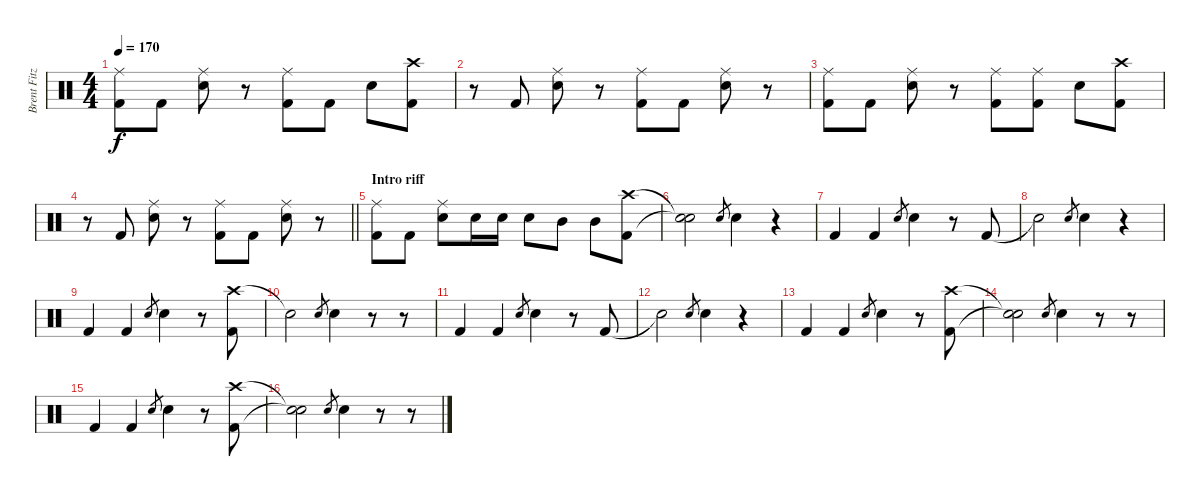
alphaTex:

\track ("Brent Fitz" "Brent Fitz") {instrument percussion}
\staff {score}
\articulation defaults
\ts (4 4)
\tempo 170
\clef neutral
\ks c
("Ride (middle)" "Kick (hit) 2").8{dy f} "Kick (hit) 2".8 ("Ride (middle)" "Electric Snare (hit)").8 r.8 ("Ride (middle)" "Kick (hit) 2").8 "Kick (hit) 2".8 "Electric Snare (hit)".8 ("Crash high (hit)" "Kick (hit) 2").8 |
r.8 "Kick (hit) 2".8 ("Ride (middle)" "Electric Snare (hit)").8 r.8 ("Ride (middle)" "Kick (hit) 2").8 "Kick (hit) 2".8 ("Ride (middle)" "Electric Snare (hit)").8 r.8 |
("Ride (middle)" "Kick (hit) 2").8 "Kick (hit) 2".8 ("Ride (middle)" "Electric Snare (hit)").8 r.8 ("Ride (middle)" "Kick (hit) 2").8 ("Ride (middle)" "Kick (hit) 2").8 "Electric Snare (hit)".8 ("Crash high (hit)" "Kick (hit) 2").8 |
\barLineRight lightlight
r.8 "Kick (hit) 2".8 ("Ride (middle)" "Electric Snare (hit)").8 r.8 ("Ride (middle)" "Kick (hit) 2").8 "Kick (hit) 2".8 ("Ride (middle)" "Electric Snare (hit)").8 r.8 |
\section ("" "Intro riff")
("Ride (middle)" "Kick (hit) 2").8 "Kick (hit) 2".8 ("Ride (middle)" "Electric Snare (hit)").8 "Electric Snare (hit)".16 "Electric Snare (hit)".16 "Electric Snare (hit)".8 "Mid Tom (hit)".8 "Mid Tom (hit)".8 ("Crash high (hit)" "Kick (hit) 2").8 |
("Snare (hit)"{t} "Snare (hit)"{t}).2 "Electric Snare (hit)".8{gr} "Electric Snare (hit)".4 r.4 |
"Kick (hit) 2".4 "Kick (hit) 2".4 "Electric Snare (hit)".8{gr} "Electric Snare (hit)".4 r.8 "Kick (hit) 2".8 |
"Snare (hit)"{t}.2 "Electric Snare (hit)".8{gr} "Electric Snare (hit)".4 r.4 |
"Kick (hit) 2".4 "Kick (hit) 2".4 "Electric Snare (hit)".8{gr} "Electric Snare (hit)".4 r.8 ("Crash high (hit)" "Kick (hit) 2").8 |
"Snare (hit)"{t}.2 "Electric Snare (hit)".8{gr} "Electric Snare (hit)".4 r.8 r.8 |
"Kick (hit) 2".4 "Kick (hit) 2".4 "Electric Snare (hit)".8{gr} "Electric Snare (hit)".4 r.8 "Kick (hit) 2".8 |
"Snare (hit)"{t}.2 "Electric Snare (hit)".8{gr} "Electric Snare (hit)".4 r.4 |
"Kick (hit) 2".4 "Kick (hit) 2".4 "Electric Snare (hit)".8{gr} "Electric Snare (hit)".4 r.8 ("Crash high (hit)" "Kick (hit) 2").8 |
("Snare (hit)"{t} "Snare (hit)"{t}).2 "Electric Snare (hit)".8{gr} "Electric Snare (hit)".4 r.8 r.8 |
"Kick (hit) 2".4 "Kick (hit) 2".4 "Electric Snare (hit)".8{gr} "Electric Snare (hit)".4 r.8 ("Crash high (hit)" "Kick (hit) 2").8 |
("Snare (hit)"{t} "Snare (hit)"{t}).2 "Electric Snare (hit)".8{gr} "Electric Snare (hit)".4 r.8 r.8
